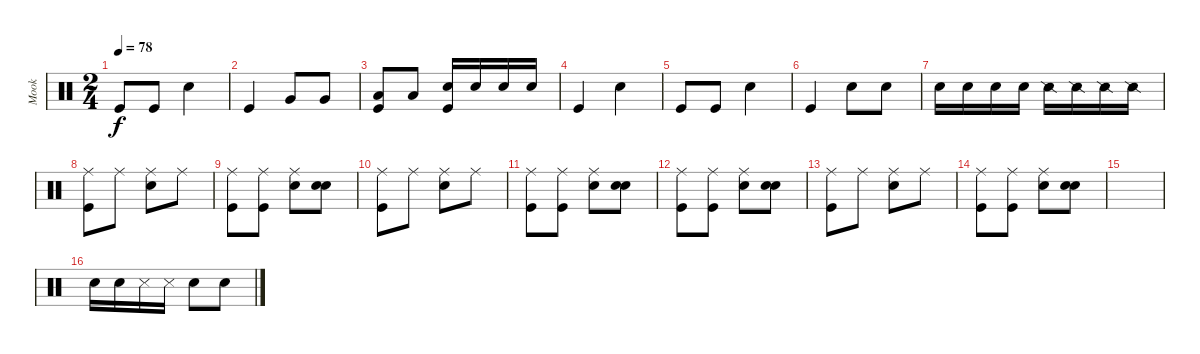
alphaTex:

\track ("Mook" "Mook") {instrument percussion}
\staff {score}
\articulation defaults
\ts (2 4)
\tempo 78
\clef neutral
\ks c "Kick (hit)".8{dy f} "Kick (hit)".8 "Snare (hit) 2".4
|
"Kick (hit)".4 "Very Low Tom (hit)".8 "Very Low Tom (hit)".8 |
("Low Floor Tom (hit)" "Kick (hit)").8 "Low Floor Tom (hit)".8 ("Metronome (bell)" "Kick (hit)").16 "Metronome (bell)".16 "Metronome (bell)".16 "Metronome (bell)".16 |
"Kick (hit)".4 "Snare (hit) 2".4 |
"Kick (hit)".8 "Kick (hit)".8 "Snare (hit) 2".4 |
"Kick (hit)".4 "Electric Snare (hit)".8 "Electric Snare (hit)".8 |
"Snare (hit) 2".16 "Snare (hit) 2".16 "Snare (hit) 2".16 "Snare (hit) 2".16 "Snare (side stick) 2".16 "Snare (side stick) 2".16 "Snare (side stick) 2".16 "Snare (side stick) 2".16 |
("Ride (middle)" "Kick (hit)").8 "Ride (middle)".8 ("Ride (middle)" "Metronome (bell)").8 "Ride (middle)".8 |
("Ride (middle)" "Kick (hit)").8 ("Ride (middle)" "Kick (hit)").8 ("Ride (middle)" "Metronome (bell)").8 ("Snare (hit)" "Metronome (bell)").8 |
("Ride (middle)" "Kick (hit)").8 "Ride (middle)".8 ("Ride (middle)" "Metronome (bell)").8 "Ride (middle)".8 |
("Ride (middle)" "Kick (hit)").8 ("Ride (middle)" "Kick (hit)").8 ("Ride (middle)" "Metronome (bell)").8 ("Snare (hit)" "Metronome (bell)").8 |
("Ride (middle)" "Kick (hit)").8 ("Ride (middle)" "Kick (hit)").8 ("Ride (middle)" "Metronome (bell)").8 ("Snare (hit)" "Metronome (bell)").8 |
("Ride (middle)" "Kick (hit)").8 "Ride (middle)".8 ("Ride (middle)" "Metronome (bell)").8 "Ride (middle)".8 |
("Ride (middle)" "Kick (hit)").8 ("Ride (middle)" "Kick (hit)").8 ("Ride (middle)" "Metronome (bell)").8 ("Snare (hit)" "Metronome (bell)").8 |
|
"Metronome (bell)".16 "Metronome (bell)".16 "Metronome (hit)".16 "Metronome (hit)".16 "Snare (hit) 2".8 "Snare (hit) 2".8
